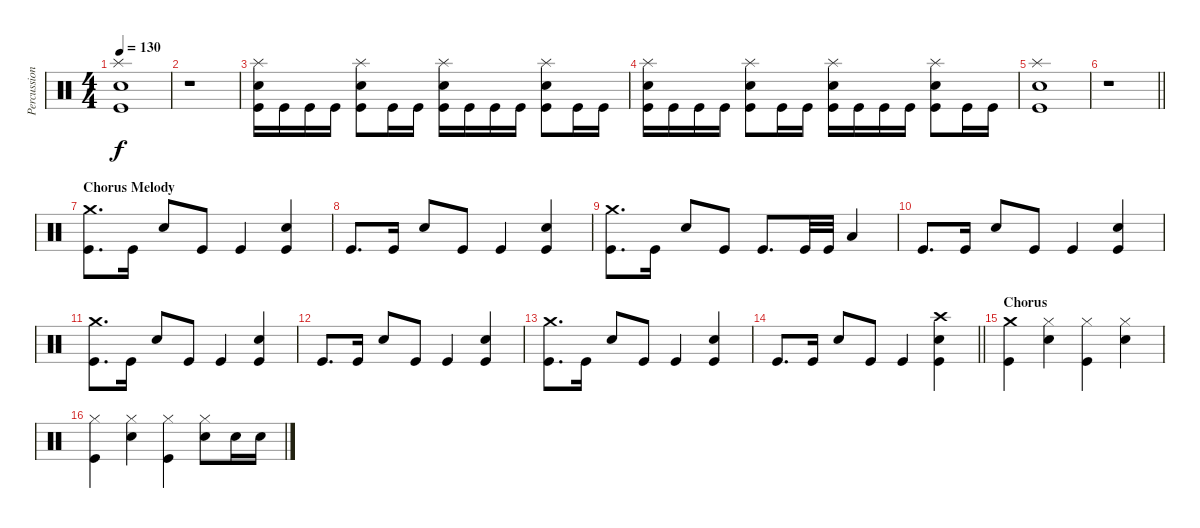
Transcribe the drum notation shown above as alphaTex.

\track ("Percussion" "Percussion") {instrument percussion}
\staff {score}
\articulation defaults
\ts (4 4)
\tempo 130
\clef neutral
\ks c
("Splash (hit)" "Electric Snare (hit)" "Kick (hit)").1{dy f} |
r.1 |
("Splash (hit)" "Electric Snare (hit)" "Kick (hit)").16 "Kick (hit)".16 "Kick (hit)".16 "Kick (hit)".16 ("Splash (hit)" "Electric Snare (hit)" "Kick (hit)").8 "Kick (hit)".16 "Kick (hit)".16 ("Splash (hit)" "Electric Snare (hit)" "Kick (hit)").16 "Kick (hit)".16 "Kick (hit)".16 "Kick (hit)".16 ("Splash (hit)" "Electric Snare (hit)" "Kick (hit)").8 "Kick (hit)".16 "Kick (hit)".16 |
("Splash (hit)" "Electric Snare (hit)" "Kick (hit)").16 "Kick (hit)".16 "Kick (hit)".16 "Kick (hit)".16 ("Splash (hit)" "Electric Snare (hit)" "Kick (hit)").8 "Kick (hit)".16 "Kick (hit)".16 ("Splash (hit)" "Electric Snare (hit)" "Kick (hit)").16 "Kick (hit)".16 "Kick (hit)".16 "Kick (hit)".16 ("Splash (hit)" "Electric Snare (hit)" "Kick (hit)").8 "Kick (hit)".16 "Kick (hit)".16 |
("Splash (hit)" "Electric Snare (hit)" "Kick (hit)").1 |
\barLineRight lightlight
r.1 |
\section ("" "Chorus Melody")
("Crash medium (hit)" "Kick (hit)").8{d} "Kick (hit)".16 "Electric Snare (hit)".8 "Kick (hit)".8 "Kick (hit)".4 ("Electric Snare (hit)" "Kick (hit)").4 |
"Kick (hit)".8{d} "Kick (hit)".16 "Electric Snare (hit)".8 "Kick (hit)".8 "Kick (hit)".4 ("Electric Snare (hit)" "Kick (hit)").4 |
("Crash medium (hit)" "Kick (hit)").8{d} "Kick (hit)".16 "Electric Snare (hit)".8 "Kick (hit)".8 "Kick (hit)".8{d} "Kick (hit)".32 "Kick (hit)".32 "Low Floor Tom (hit)".4 |
"Kick (hit)".8{d} "Kick (hit)".16 "Electric Snare (hit)".8 "Kick (hit)".8 "Kick (hit)".4 ("Electric Snare (hit)" "Kick (hit)").4 |
("Crash medium (hit)" "Kick (hit)").8{d} "Kick (hit)".16 "Electric Snare (hit)".8 "Kick (hit)".8 "Kick (hit)".4 ("Electric Snare (hit)" "Kick (hit)").4 |
"Kick (hit)".8{d} "Kick (hit)".16 "Electric Snare (hit)".8 "Kick (hit)".8 "Kick (hit)".4 ("Electric Snare (hit)" "Kick (hit)").4 |
("Crash medium (hit)" "Kick (hit)").8{d} "Kick (hit)".16 "Electric Snare (hit)".8 "Kick (hit)".8 "Kick (hit)".4 ("Electric Snare (hit)" "Kick (hit)").4 |
\barLineRight lightlight "Kick (hit)".8{d} "Kick (hit)".16 "Electric Snare (hit)".8 "Kick (hit)".8 "Kick (hit)".4
("Crash high (hit)" "Electric Snare (hit)" "Kick (hit)").4 |
\section ("" "Chorus")
("Crash medium (hit)" "Kick (hit)").4 ("Hi-Hat (closed)" "Electric Snare (hit)").4 ("Hi-Hat (closed)" "Kick (hit)").4 ("Hi-Hat (closed)" "Electric Snare (hit)").4 |
("Hi-Hat (closed)" "Kick (hit)").4 ("Hi-Hat (closed)" "Electric Snare (hit)").4 ("Hi-Hat (closed)" "Kick (hit)").4 ("Hi-Hat (closed)" "Electric Snare (hit)").8 "Electric Snare (hit)".16 "Electric Snare (hit)".16
